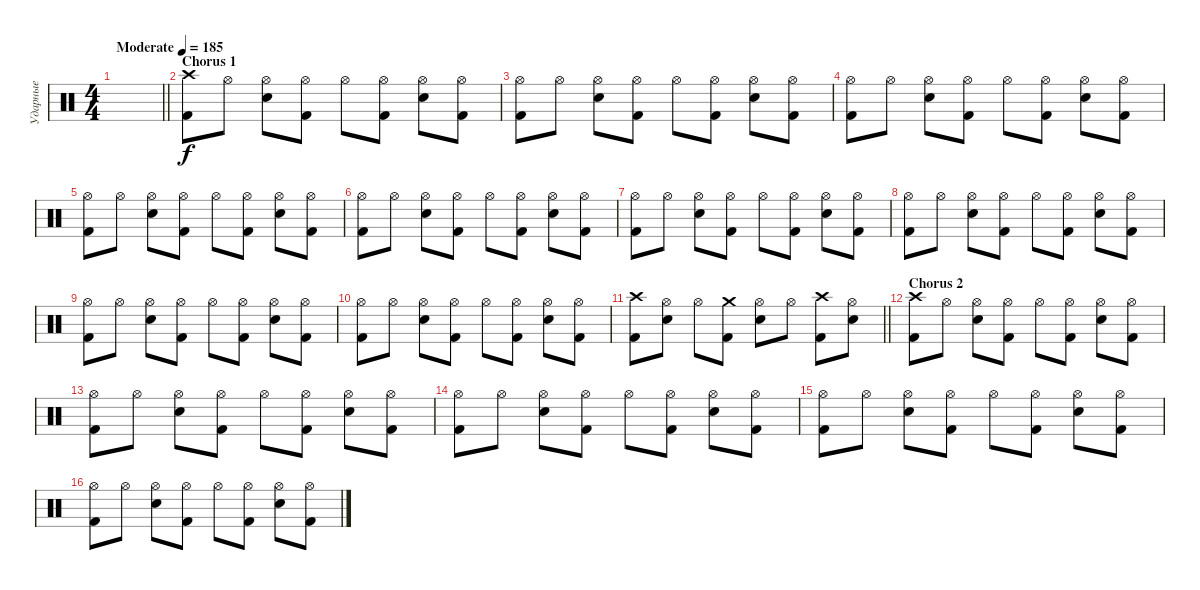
\track ("Ударные" "Ударные") {instrument percussion}
\staff {score}
\articulation defaults
\ts (4 4)
\tempo (185 "Moderate")
\clef neutral
\barLineRight lightlight
\ks c
|
\section ("" "Chorus 1")
("Kick (hit) 2" "Crash high (hit)").8{volume 12} "Hi-Hat (open)".8 ("Hi-Hat (open)" "Electric Snare (hit)").8 ("Hi-Hat (open)" "Kick (hit) 2").8 "Hi-Hat (open)".8 ("Hi-Hat (open)" "Kick (hit) 2").8 ("Hi-Hat (open)" "Electric Snare (hit)").8 ("Hi-Hat (open)" "Kick (hit) 2").8 |
("Kick (hit) 2" "Hi-Hat (open)").8 "Hi-Hat (open)".8 ("Hi-Hat (open)" "Electric Snare (hit)").8 ("Hi-Hat (open)" "Kick (hit) 2").8 "Hi-Hat (open)".8 ("Hi-Hat (open)" "Kick (hit) 2").8 ("Hi-Hat (open)" "Electric Snare (hit)").8 ("Hi-Hat (open)" "Kick (hit) 2").8 |
("Kick (hit) 2" "Hi-Hat (open)").8 "Hi-Hat (open)".8 ("Hi-Hat (open)" "Electric Snare (hit)").8 ("Hi-Hat (open)" "Kick (hit) 2").8 "Hi-Hat (open)".8 ("Hi-Hat (open)" "Kick (hit) 2").8 ("Hi-Hat (open)" "Electric Snare (hit)").8 ("Hi-Hat (open)" "Kick (hit) 2").8 |
("Kick (hit) 2" "Hi-Hat (open)").8 "Hi-Hat (open)".8 ("Hi-Hat (open)" "Electric Snare (hit)").8 ("Hi-Hat (open)" "Kick (hit) 2").8 "Hi-Hat (open)".8 ("Hi-Hat (open)" "Kick (hit) 2").8 ("Hi-Hat (open)" "Electric Snare (hit)").8 ("Hi-Hat (open)" "Kick (hit) 2").8 |
("Kick (hit) 2" "Hi-Hat (open)").8 "Hi-Hat (open)".8 ("Hi-Hat (open)" "Electric Snare (hit)").8 ("Hi-Hat (open)" "Kick (hit) 2").8 "Hi-Hat (open)".8 ("Hi-Hat (open)" "Kick (hit) 2").8 ("Hi-Hat (open)" "Electric Snare (hit)").8 ("Hi-Hat (open)" "Kick (hit) 2").8 |
("Kick (hit) 2" "Hi-Hat (open)").8 "Hi-Hat (open)".8 ("Hi-Hat (open)" "Electric Snare (hit)").8 ("Hi-Hat (open)" "Kick (hit) 2").8 "Hi-Hat (open)".8 ("Hi-Hat (open)" "Kick (hit) 2").8 ("Hi-Hat (open)" "Electric Snare (hit)").8 ("Hi-Hat (open)" "Kick (hit) 2").8 |
("Kick (hit) 2" "Hi-Hat (open)").8 "Hi-Hat (open)".8 ("Hi-Hat (open)" "Electric Snare (hit)").8 ("Hi-Hat (open)" "Kick (hit) 2").8 "Hi-Hat (open)".8 ("Hi-Hat (open)" "Kick (hit) 2").8 ("Hi-Hat (open)" "Electric Snare (hit)").8 ("Hi-Hat (open)" "Kick (hit) 2").8 |
("Kick (hit) 2" "Hi-Hat (open)").8 "Hi-Hat (open)".8 ("Hi-Hat (open)" "Electric Snare (hit)").8 ("Hi-Hat (open)" "Kick (hit) 2").8 "Hi-Hat (open)".8 ("Hi-Hat (open)" "Kick (hit) 2").8 ("Hi-Hat (open)" "Electric Snare (hit)").8 ("Hi-Hat (open)" "Kick (hit) 2").8 |
("Kick (hit) 2" "Hi-Hat (open)").8 "Hi-Hat (open)".8 ("Hi-Hat (open)" "Electric Snare (hit)").8 ("Hi-Hat (open)" "Kick (hit) 2").8 "Hi-Hat (open)".8 ("Hi-Hat (open)" "Kick (hit) 2").8 ("Hi-Hat (open)" "Electric Snare (hit)").8 ("Hi-Hat (open)" "Kick (hit) 2").8 |
\barLineRight lightlight
("Kick (hit) 2" "Crash high (hit)").8 ("Hi-Hat (open)" "Electric Snare (hit)").8 "Hi-Hat (open)".8 ("Crash medium (hit)" "Kick (hit) 2").8 ("Hi-Hat (open)" "Electric Snare (hit)").8 "Hi-Hat (open)".8 ("Crash high (hit)" "Kick (hit) 2").8 ("Hi-Hat (open)" "Electric Snare (hit)").8 |
\section ("" "Chorus 2")
("Kick (hit) 2" "Crash high (hit)").8 "Hi-Hat (open)".8 ("Hi-Hat (open)" "Electric Snare (hit)").8 ("Hi-Hat (open)" "Kick (hit) 2").8 "Hi-Hat (open)".8 ("Hi-Hat (open)" "Kick (hit) 2").8 ("Hi-Hat (open)" "Electric Snare (hit)").8 ("Hi-Hat (open)" "Kick (hit) 2").8 |
("Kick (hit) 2" "Hi-Hat (open)").8 "Hi-Hat (open)".8 ("Hi-Hat (open)" "Electric Snare (hit)").8 ("Hi-Hat (open)" "Kick (hit) 2").8 "Hi-Hat (open)".8 ("Hi-Hat (open)" "Kick (hit) 2").8 ("Hi-Hat (open)" "Electric Snare (hit)").8 ("Hi-Hat (open)" "Kick (hit) 2").8 |
("Kick (hit) 2" "Hi-Hat (open)").8 "Hi-Hat (open)".8 ("Hi-Hat (open)" "Electric Snare (hit)").8 ("Hi-Hat (open)" "Kick (hit) 2").8 "Hi-Hat (open)".8 ("Hi-Hat (open)" "Kick (hit) 2").8 ("Hi-Hat (open)" "Electric Snare (hit)").8 ("Hi-Hat (open)" "Kick (hit) 2").8 |
("Kick (hit) 2" "Hi-Hat (open)").8 "Hi-Hat (open)".8 ("Hi-Hat (open)" "Electric Snare (hit)").8 ("Hi-Hat (open)" "Kick (hit) 2").8 "Hi-Hat (open)".8 ("Hi-Hat (open)" "Kick (hit) 2").8 ("Hi-Hat (open)" "Electric Snare (hit)").8 ("Hi-Hat (open)" "Kick (hit) 2").8 |
("Kick (hit) 2" "Hi-Hat (open)").8 "Hi-Hat (open)".8 ("Hi-Hat (open)" "Electric Snare (hit)").8 ("Hi-Hat (open)" "Kick (hit) 2").8 "Hi-Hat (open)".8 ("Hi-Hat (open)" "Kick (hit) 2").8 ("Hi-Hat (open)" "Electric Snare (hit)").8 ("Hi-Hat (open)" "Kick (hit) 2").8
